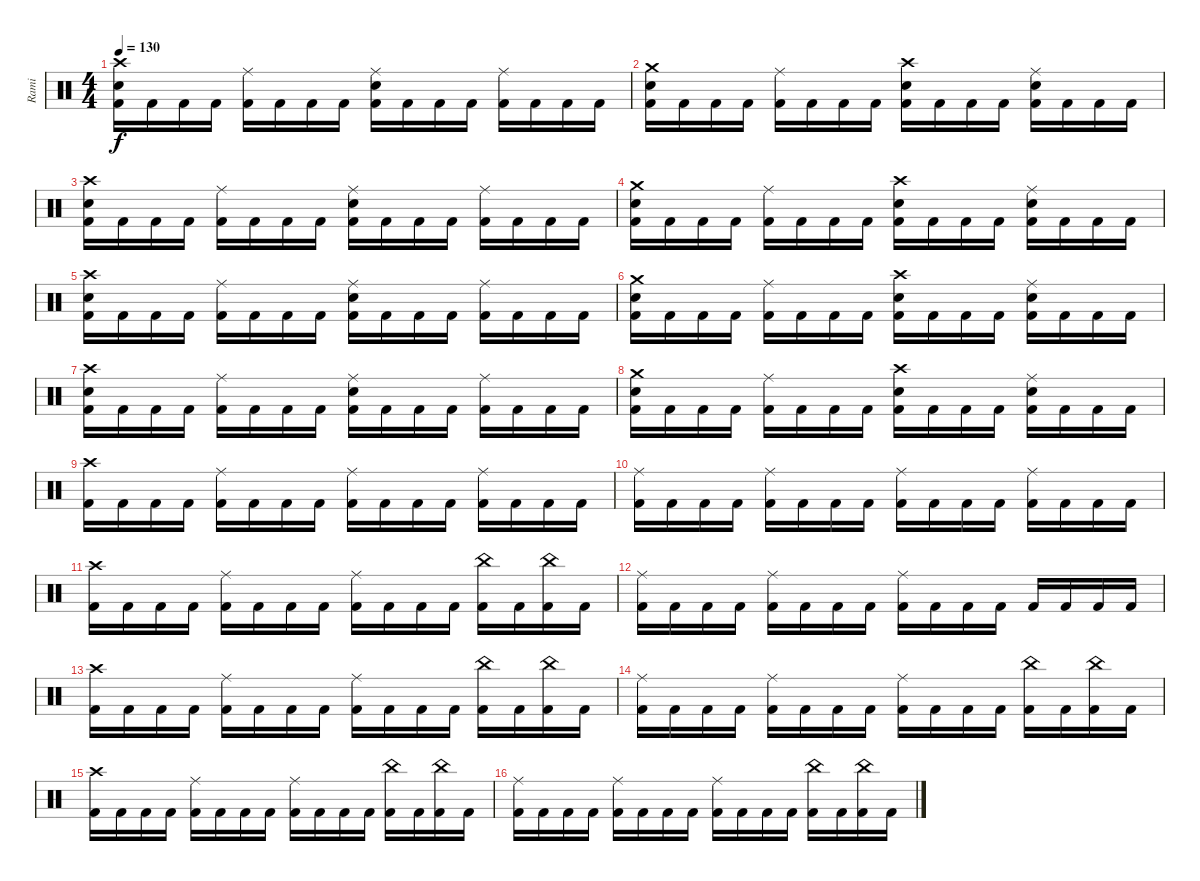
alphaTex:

\track ("Rami" "Rami") {instrument percussion}
\staff {score}
\articulation defaults
\ts (4 4)
\tempo 130
\clef neutral
\ks c
("Crash high (hit)" "Electric Snare (hit)" "Kick (hit) 2").16{dy f} "Kick (hit) 2".16 "Kick (hit) 2".16 "Kick (hit) 2".16 ("Ride (middle)" "Kick (hit) 2").16 "Kick (hit) 2".16 "Kick (hit) 2".16 "Kick (hit) 2".16 ("Ride (middle)" "Electric Snare (hit)" "Kick (hit) 2").16 "Kick (hit) 2".16 "Kick (hit) 2".16 "Kick (hit) 2".16 ("Ride (middle)" "Kick (hit) 2").16 "Kick (hit) 2".16 "Kick (hit) 2".16 "Kick (hit) 2".16 |
("Crash medium (hit)" "Electric Snare (hit)" "Kick (hit) 2").16 "Kick (hit) 2".16 "Kick (hit) 2".16 "Kick (hit) 2".16 ("Ride (middle)" "Kick (hit) 2").16 "Kick (hit) 2".16 "Kick (hit) 2".16 "Kick (hit) 2".16 ("Crash high (hit)" "Electric Snare (hit)" "Kick (hit) 2").16 "Kick (hit) 2".16 "Kick (hit) 2".16 "Kick (hit) 2".16 ("Ride (middle)" "Electric Snare (hit)" "Kick (hit) 2").16 "Kick (hit) 2".16 "Kick (hit) 2".16 "Kick (hit) 2".16 |
("Crash high (hit)" "Electric Snare (hit)" "Kick (hit) 2").16 "Kick (hit) 2".16 "Kick (hit) 2".16 "Kick (hit) 2".16 ("Ride (middle)" "Kick (hit) 2").16 "Kick (hit) 2".16 "Kick (hit) 2".16 "Kick (hit) 2".16 ("Ride (middle)" "Electric Snare (hit)" "Kick (hit) 2").16 "Kick (hit) 2".16 "Kick (hit) 2".16 "Kick (hit) 2".16 ("Ride (middle)" "Kick (hit) 2").16 "Kick (hit) 2".16 "Kick (hit) 2".16 "Kick (hit) 2".16 |
("Crash medium (hit)" "Electric Snare (hit)" "Kick (hit) 2").16 "Kick (hit) 2".16 "Kick (hit) 2".16 "Kick (hit) 2".16 ("Ride (middle)" "Kick (hit) 2").16 "Kick (hit) 2".16 "Kick (hit) 2".16 "Kick (hit) 2".16 ("Crash high (hit)" "Electric Snare (hit)" "Kick (hit) 2").16 "Kick (hit) 2".16 "Kick (hit) 2".16 "Kick (hit) 2".16 ("Ride (middle)" "Electric Snare (hit)" "Kick (hit) 2").16 "Kick (hit) 2".16 "Kick (hit) 2".16 "Kick (hit) 2".16 |
("Crash high (hit)" "Electric Snare (hit)" "Kick (hit) 2").16 "Kick (hit) 2".16 "Kick (hit) 2".16 "Kick (hit) 2".16 ("Ride (middle)" "Kick (hit) 2").16 "Kick (hit) 2".16 "Kick (hit) 2".16 "Kick (hit) 2".16 ("Ride (middle)" "Electric Snare (hit)" "Kick (hit) 2").16 "Kick (hit) 2".16 "Kick (hit) 2".16 "Kick (hit) 2".16 ("Ride (middle)" "Kick (hit) 2").16 "Kick (hit) 2".16 "Kick (hit) 2".16 "Kick (hit) 2".16 |
("Crash medium (hit)" "Electric Snare (hit)" "Kick (hit) 2").16 "Kick (hit) 2".16 "Kick (hit) 2".16 "Kick (hit) 2".16 ("Ride (middle)" "Kick (hit) 2").16 "Kick (hit) 2".16 "Kick (hit) 2".16 "Kick (hit) 2".16 ("Crash high (hit)" "Electric Snare (hit)" "Kick (hit) 2").16 "Kick (hit) 2".16 "Kick (hit) 2".16 "Kick (hit) 2".16 ("Ride (middle)" "Electric Snare (hit)" "Kick (hit) 2").16 "Kick (hit) 2".16 "Kick (hit) 2".16 "Kick (hit) 2".16 |
("Crash high (hit)" "Electric Snare (hit)" "Kick (hit) 2").16 "Kick (hit) 2".16 "Kick (hit) 2".16 "Kick (hit) 2".16 ("Ride (middle)" "Kick (hit) 2").16 "Kick (hit) 2".16 "Kick (hit) 2".16 "Kick (hit) 2".16 ("Ride (middle)" "Electric Snare (hit)" "Kick (hit) 2").16 "Kick (hit) 2".16 "Kick (hit) 2".16 "Kick (hit) 2".16 ("Ride (middle)" "Kick (hit) 2").16 "Kick (hit) 2".16 "Kick (hit) 2".16 "Kick (hit) 2".16 |
("Crash medium (hit)" "Electric Snare (hit)" "Kick (hit) 2").16 "Kick (hit) 2".16 "Kick (hit) 2".16 "Kick (hit) 2".16 ("Ride (middle)" "Kick (hit) 2").16 "Kick (hit) 2".16 "Kick (hit) 2".16 "Kick (hit) 2".16 ("Crash high (hit)" "Electric Snare (hit)" "Kick (hit) 2").16 "Kick (hit) 2".16 "Kick (hit) 2".16 "Kick (hit) 2".16 ("Ride (middle)" "Electric Snare (hit)" "Kick (hit) 2").16 "Kick (hit) 2".16 "Kick (hit) 2".16 "Kick (hit) 2".16 |
("Crash high (hit)" "Kick (hit) 2").16 "Kick (hit) 2".16 "Kick (hit) 2".16 "Kick (hit) 2".16 ("Ride (middle)" "Kick (hit) 2").16 "Kick (hit) 2".16 "Kick (hit) 2".16 "Kick (hit) 2".16 ("Ride (middle)" "Kick (hit) 2").16 "Kick (hit) 2".16 "Kick (hit) 2".16 "Kick (hit) 2".16 ("Ride (middle)" "Kick (hit) 2").16 "Kick (hit) 2".16 "Kick (hit) 2".16 "Kick (hit) 2".16 |
("Ride (middle)" "Kick (hit) 2").16 "Kick (hit) 2".16 "Kick (hit) 2".16 "Kick (hit) 2".16 ("Ride (middle)" "Kick (hit) 2").16 "Kick (hit) 2".16 "Kick (hit) 2".16 "Kick (hit) 2".16 ("Ride (middle)" "Kick (hit) 2").16 "Kick (hit) 2".16 "Kick (hit) 2".16 "Kick (hit) 2".16 ("Ride (middle)" "Kick (hit) 2").16 "Kick (hit) 2".16 "Kick (hit) 2".16 "Kick (hit) 2".16 |
("Crash high (hit)" "Kick (hit) 2").16 "Kick (hit) 2".16 "Kick (hit) 2".16 "Kick (hit) 2".16 ("Ride (middle)" "Kick (hit) 2").16 "Kick (hit) 2".16 "Kick (hit) 2".16 "Kick (hit) 2".16 ("Ride (middle)" "Kick (hit) 2").16 "Kick (hit) 2".16 "Kick (hit) 2".16 "Kick (hit) 2".16 ("China (hit)" "Kick (hit) 2").16 "Kick (hit) 2".16 ("China (hit)" "Kick (hit) 2").16 "Kick (hit) 2".16 |
("Ride (middle)" "Kick (hit) 2").16 "Kick (hit) 2".16 "Kick (hit) 2".16 "Kick (hit) 2".16 ("Ride (middle)" "Kick (hit) 2").16 "Kick (hit) 2".16 "Kick (hit) 2".16 "Kick (hit) 2".16 ("Ride (middle)" "Kick (hit) 2").16 "Kick (hit) 2".16 "Kick (hit) 2".16 "Kick (hit) 2".16 "Kick (hit) 2".16 "Kick (hit) 2".16 "Kick (hit) 2".16 "Kick (hit) 2".16 |
("Crash high (hit)" "Kick (hit) 2").16 "Kick (hit) 2".16 "Kick (hit) 2".16 "Kick (hit) 2".16 ("Ride (middle)" "Kick (hit) 2").16 "Kick (hit) 2".16 "Kick (hit) 2".16 "Kick (hit) 2".16 ("Ride (middle)" "Kick (hit) 2").16 "Kick (hit) 2".16 "Kick (hit) 2".16 "Kick (hit) 2".16 ("China (hit)" "Kick (hit) 2").16 "Kick (hit) 2".16 ("China (hit)" "Kick (hit) 2").16 "Kick (hit) 2".16 |
("Ride (middle)" "Kick (hit) 2").16 "Kick (hit) 2".16 "Kick (hit) 2".16 "Kick (hit) 2".16 ("Ride (middle)" "Kick (hit) 2").16 "Kick (hit) 2".16 "Kick (hit) 2".16 "Kick (hit) 2".16 ("Ride (middle)" "Kick (hit) 2").16 "Kick (hit) 2".16 "Kick (hit) 2".16 "Kick (hit) 2".16 ("China (hit)" "Kick (hit) 2").16 "Kick (hit) 2".16 ("China (hit)" "Kick (hit) 2").16 "Kick (hit) 2".16 |
("Crash high (hit)" "Kick (hit) 2").16 "Kick (hit) 2".16 "Kick (hit) 2".16 "Kick (hit) 2".16 ("Ride (middle)" "Kick (hit) 2").16 "Kick (hit) 2".16 "Kick (hit) 2".16 "Kick (hit) 2".16 ("Ride (middle)" "Kick (hit) 2").16 "Kick (hit) 2".16 "Kick (hit) 2".16 "Kick (hit) 2".16 ("China (hit)" "Kick (hit) 2").16 "Kick (hit) 2".16 ("China (hit)" "Kick (hit) 2").16 "Kick (hit) 2".16 |
("Ride (middle)" "Kick (hit) 2").16 "Kick (hit) 2".16 "Kick (hit) 2".16 "Kick (hit) 2".16 ("Ride (middle)" "Kick (hit) 2").16 "Kick (hit) 2".16 "Kick (hit) 2".16 "Kick (hit) 2".16 ("Ride (middle)" "Kick (hit) 2").16 "Kick (hit) 2".16 "Kick (hit) 2".16 "Kick (hit) 2".16 ("China (hit)" "Kick (hit) 2").16 "Kick (hit) 2".16 ("China (hit)" "Kick (hit) 2").16 "Kick (hit) 2".16
